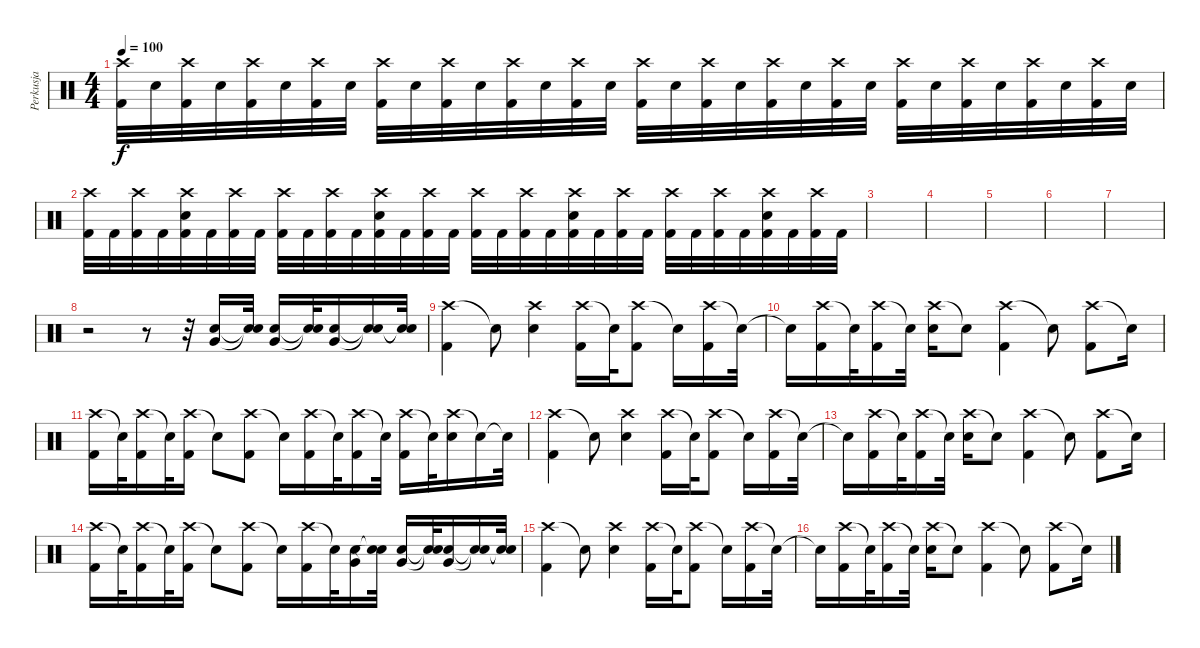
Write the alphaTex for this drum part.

\track ("Perkusja" "Perkusja") {instrument percussion}
\staff {score}
\articulation defaults
\ts (4 4)
\tempo 100
\clef neutral
\ks c
("Crash high (hit)" "Kick (hit) 2").32{dy f} "Snare (hit) 2".32 ("Crash high (hit)" "Kick (hit) 2").32 "Snare (hit) 2".32 ("Crash high (hit)" "Kick (hit) 2").32 "Snare (hit) 2".32 ("Crash high (hit)" "Kick (hit) 2").32 "Snare (hit) 2".32 ("Crash high (hit)" "Kick (hit) 2").32 "Snare (hit) 2".32 ("Crash high (hit)" "Kick (hit) 2").32 "Snare (hit) 2".32 ("Crash high (hit)" "Kick (hit) 2").32 "Snare (hit) 2".32 ("Crash high (hit)" "Kick (hit) 2").32 "Snare (hit) 2".32 ("Crash high (hit)" "Kick (hit) 2").32 "Snare (hit) 2".32 ("Crash high (hit)" "Kick (hit) 2").32 "Snare (hit) 2".32 ("Crash high (hit)" "Kick (hit) 2").32 "Snare (hit) 2".32 ("Crash high (hit)" "Kick (hit) 2").32 "Snare (hit) 2".32 ("Crash high (hit)" "Kick (hit) 2").32 "Snare (hit) 2".32 ("Crash high (hit)" "Kick (hit) 2").32 "Snare (hit) 2".32 ("Crash high (hit)" "Kick (hit) 2").32 "Snare (hit) 2".32 ("Crash high (hit)" "Kick (hit) 2").32 "Snare (hit) 2".32 |
("Crash high (hit)" "Kick (hit) 2").32 "Kick (hit) 2".32 ("Crash high (hit)" "Kick (hit) 2").32 "Kick (hit) 2".32 ("Crash high (hit)" "Snare (hit) 2" "Kick (hit) 2").32 "Kick (hit) 2".32 ("Crash high (hit)" "Kick (hit) 2").32 "Kick (hit) 2".32 ("Crash high (hit)" "Kick (hit) 2").32 "Kick (hit) 2".32 ("Crash high (hit)" "Kick (hit) 2").32 "Kick (hit) 2".32 ("Crash high (hit)" "Snare (hit) 2" "Kick (hit) 2").32 "Kick (hit) 2".32 ("Crash high (hit)" "Kick (hit) 2").32 "Kick (hit) 2".32 ("Crash high (hit)" "Kick (hit) 2").32 "Kick (hit) 2".32 ("Crash high (hit)" "Kick (hit) 2").32 "Kick (hit) 2".32 ("Crash high (hit)" "Snare (hit) 2" "Kick (hit) 2").32 "Kick (hit) 2".32 ("Crash high (hit)" "Kick (hit) 2").32 "Kick (hit) 2".32 ("Crash high (hit)" "Kick (hit) 2").32 "Kick (hit) 2".32 ("Crash high (hit)" "Kick (hit) 2").32 "Kick (hit) 2".32 ("Crash high (hit)" "Snare (hit) 2" "Kick (hit) 2").32 "Kick (hit) 2".32 ("Crash high (hit)" "Kick (hit) 2").32 "Kick (hit) 2".32 |
|
|
|
|
|
r.2 r.8 r.32 ("Snare (hit) 2" "Very Low Tom (hit)").16 ("Snare (hit)"{t} "Snare (hit)"{t}).32 ("Snare (hit) 2" "Very Low Tom (hit)").16 ("Snare (hit)"{t} "Snare (hit)"{t}).32 ("Snare (hit) 2" "Very Low Tom (hit)").16 ("Snare (hit)"{t} "Snare (hit)"{t}).16 ("Snare (hit)"{t} "Snare (hit)"{t}).32 |
("Crash high (hit)" "Kick (hit) 2").4 "Snare (hit)"{t}.8 ("Crash high (hit)" "Snare (hit) 2").4 ("Crash high (hit)" "Kick (hit) 2").16 "Snare (hit)"{t}.32 ("Crash high (hit)" "Kick (hit) 2").8 "Snare (hit)"{t}.16 ("Crash high (hit)" "Kick (hit) 2").16 "Snare (hit)"{t}.32 |
"Snare (hit)"{t}.16 ("Crash high (hit)" "Kick (hit) 2").16 "Snare (hit)"{t}.32 ("Crash high (hit)" "Kick (hit) 2").16 "Snare (hit)"{t}.32 ("Crash high (hit)" "Snare (hit) 2").16 "Snare (hit)"{t}.8 ("Crash high (hit)" "Kick (hit) 2").4 "Snare (hit)"{t}.8 ("Crash high (hit)" "Kick (hit) 2").8 "Snare (hit)"{t}.16 |
("Crash high (hit)" "Kick (hit) 2").16 "Snare (hit)"{t}.32 ("Crash high (hit)" "Kick (hit) 2").16 "Snare (hit)"{t}.32 ("Crash high (hit)" "Kick (hit) 2").16 "Snare (hit)"{t}.8 ("Crash high (hit)" "Kick (hit) 2").8 "Snare (hit)"{t}.16 ("Crash high (hit)" "Kick (hit) 2").16 "Snare (hit)"{t}.32 ("Crash high (hit)" "Kick (hit) 2").16 "Snare (hit)"{t}.32 ("Crash high (hit)" "Kick (hit) 2").16 "Snare (hit)"{t}.32 ("Crash high (hit)" "Snare (hit) 2").16 "Snare (hit)"{t}.16 "Snare (hit)"{t}.32 |
("Crash high (hit)" "Kick (hit) 2").4 "Snare (hit)"{t}.8 ("Crash high (hit)" "Snare (hit) 2").4 ("Crash high (hit)" "Kick (hit) 2").16 "Snare (hit)"{t}.32 ("Crash high (hit)" "Kick (hit) 2").8 "Snare (hit)"{t}.16 ("Crash high (hit)" "Kick (hit) 2").16 "Snare (hit)"{t}.32 |
"Snare (hit)"{t}.16 ("Crash high (hit)" "Kick (hit) 2").16 "Snare (hit)"{t}.32 ("Crash high (hit)" "Kick (hit) 2").16 "Snare (hit)"{t}.32 ("Crash high (hit)" "Snare (hit) 2").16 "Snare (hit)"{t}.8 ("Crash high (hit)" "Kick (hit) 2").4 "Snare (hit)"{t}.8 ("Crash high (hit)" "Kick (hit) 2").8 "Snare (hit)"{t}.16 |
("Crash high (hit)" "Kick (hit) 2").16 "Snare (hit)"{t}.32 ("Crash high (hit)" "Kick (hit) 2").16 "Snare (hit)"{t}.32 ("Crash high (hit)" "Kick (hit) 2").16 "Snare (hit)"{t}.8 ("Crash high (hit)" "Kick (hit) 2").8 "Snare (hit)"{t}.16 ("Crash high (hit)" "Kick (hit) 2").16 "Snare (hit)"{t}.32 ("Snare (hit) 2" "Very Low Tom (hit)").16 ("Snare (hit)"{t} "Snare (hit)"{t}).32 ("Snare (hit) 2" "Very Low Tom (hit)").16 ("Snare (hit)"{t} "Snare (hit)"{t}).32 ("Snare (hit) 2" "Very Low Tom (hit)").16 ("Snare (hit)"{t} "Snare (hit)"{t}).16 ("Snare (hit)"{t} "Snare (hit)"{t}).32 |
("Crash high (hit)" "Kick (hit) 2").4 "Snare (hit)"{t}.8 ("Crash high (hit)" "Snare (hit) 2").4 ("Crash high (hit)" "Kick (hit) 2").16 "Snare (hit)"{t}.32 ("Crash high (hit)" "Kick (hit) 2").8 "Snare (hit)"{t}.16 ("Crash high (hit)" "Kick (hit) 2").16 "Snare (hit)"{t}.32 |
"Snare (hit)"{t}.16 ("Crash high (hit)" "Kick (hit) 2").16 "Snare (hit)"{t}.32 ("Crash high (hit)" "Kick (hit) 2").16 "Snare (hit)"{t}.32 ("Crash high (hit)" "Snare (hit) 2").16 "Snare (hit)"{t}.8 ("Crash high (hit)" "Kick (hit) 2").4 "Snare (hit)"{t}.8 ("Crash high (hit)" "Kick (hit) 2").8 "Snare (hit)"{t}.16
